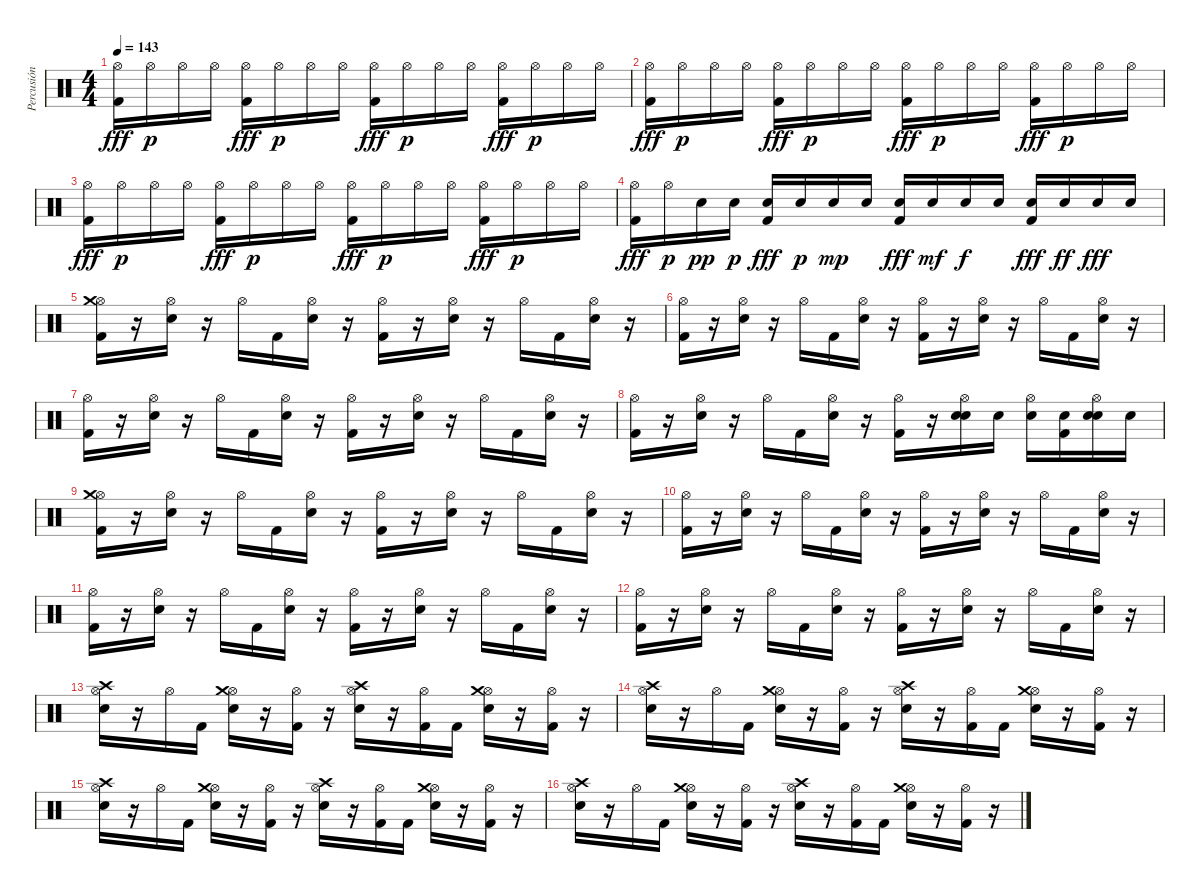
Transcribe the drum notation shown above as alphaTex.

\track ("Percusión" "Percusión") {instrument percussion}
\staff {score}
\articulation defaults
\ts (4 4)
\tempo 143
\clef neutral
\ks c
("Hi-Hat (open)" "Kick (hit) 2").16{dy fff} "Hi-Hat (open)".16{dy p} "Hi-Hat (open)".16 "Hi-Hat (open)".16 ("Hi-Hat (open)" "Kick (hit) 2").16{dy fff} "Hi-Hat (open)".16{dy p} "Hi-Hat (open)".16 "Hi-Hat (open)".16 ("Hi-Hat (open)" "Kick (hit) 2").16{dy fff} "Hi-Hat (open)".16{dy p} "Hi-Hat (open)".16 "Hi-Hat (open)".16 ("Hi-Hat (open)" "Kick (hit) 2").16{dy fff} "Hi-Hat (open)".16{dy p} "Hi-Hat (open)".16 "Hi-Hat (open)".16 |
("Hi-Hat (open)" "Kick (hit) 2").16{dy fff} "Hi-Hat (open)".16{dy p} "Hi-Hat (open)".16 "Hi-Hat (open)".16 ("Hi-Hat (open)" "Kick (hit) 2").16{dy fff} "Hi-Hat (open)".16{dy p} "Hi-Hat (open)".16 "Hi-Hat (open)".16 ("Hi-Hat (open)" "Kick (hit) 2").16{dy fff} "Hi-Hat (open)".16{dy p} "Hi-Hat (open)".16 "Hi-Hat (open)".16 ("Hi-Hat (open)" "Kick (hit) 2").16{dy fff} "Hi-Hat (open)".16{dy p} "Hi-Hat (open)".16 "Hi-Hat (open)".16 |
("Hi-Hat (open)" "Kick (hit) 2").16{dy fff} "Hi-Hat (open)".16{dy p} "Hi-Hat (open)".16 "Hi-Hat (open)".16 ("Hi-Hat (open)" "Kick (hit) 2").16{dy fff} "Hi-Hat (open)".16{dy p} "Hi-Hat (open)".16 "Hi-Hat (open)".16 ("Hi-Hat (open)" "Kick (hit) 2").16{dy fff} "Hi-Hat (open)".16{dy p} "Hi-Hat (open)".16 "Hi-Hat (open)".16 ("Hi-Hat (open)" "Kick (hit) 2").16{dy fff} "Hi-Hat (open)".16{dy p} "Hi-Hat (open)".16 "Hi-Hat (open)".16 |
("Hi-Hat (open)" "Kick (hit) 2").16{dy fff} "Hi-Hat (open)".16{dy p} "Snare (hit) 2".16{dy pp} "Snare (hit) 2".16{dy p} ("Snare (hit) 2" "Kick (hit) 2").16{dy fff} "Snare (hit) 2".16{dy p} "Snare (hit) 2".16{dy mp} "Snare (hit) 2".16 ("Snare (hit) 2" "Kick (hit) 2").16{dy fff} "Snare (hit) 2".16{dy mf} "Snare (hit) 2".16{dy f} "Snare (hit) 2".16 ("Snare (hit) 2" "Kick (hit) 2").16{dy fff} "Snare (hit) 2".16{dy ff} "Snare (hit) 2".16{dy fff} "Snare (hit) 2".16 |
("Kick (hit) 2" "Hi-Hat (open)" "Crash medium (hit)").16 r.16 ("Snare (hit) 2" "Hi-Hat (open)").16 r.16 "Hi-Hat (open)".16 "Kick (hit) 2".16 ("Snare (hit) 2" "Hi-Hat (open)").16 r.16 ("Kick (hit) 2" "Hi-Hat (open)").16 r.16 ("Snare (hit) 2" "Hi-Hat (open)").16 r.16 "Hi-Hat (open)".16 "Kick (hit) 2".16 ("Snare (hit) 2" "Hi-Hat (open)").16 r.16 |
("Kick (hit) 2" "Hi-Hat (open)").16 r.16 ("Snare (hit) 2" "Hi-Hat (open)").16 r.16 "Hi-Hat (open)".16 "Kick (hit) 2".16 ("Snare (hit) 2" "Hi-Hat (open)").16 r.16 ("Kick (hit) 2" "Hi-Hat (open)").16 r.16 ("Snare (hit) 2" "Hi-Hat (open)").16 r.16 "Hi-Hat (open)".16 "Kick (hit) 2".16 ("Snare (hit) 2" "Hi-Hat (open)").16 r.16 |
("Kick (hit) 2" "Hi-Hat (open)").16 r.16 ("Snare (hit) 2" "Hi-Hat (open)").16 r.16 "Hi-Hat (open)".16 "Kick (hit) 2".16 ("Snare (hit) 2" "Hi-Hat (open)").16 r.16 ("Kick (hit) 2" "Hi-Hat (open)").16 r.16 ("Snare (hit) 2" "Hi-Hat (open)").16 r.16 "Hi-Hat (open)".16 "Kick (hit) 2".16 ("Snare (hit) 2" "Hi-Hat (open)").16 r.16 |
("Kick (hit) 2" "Hi-Hat (open)").16 r.16 ("Snare (hit) 2" "Hi-Hat (open)").16 r.16 "Hi-Hat (open)".16 "Kick (hit) 2".16 ("Snare (hit) 2" "Hi-Hat (open)").16 r.16 ("Kick (hit) 2" "Hi-Hat (open)").16 r.16 ("Snare (hit) 2" "Hi-Hat (open)" "Snare (hit) 2").16 "Snare (hit) 2".16 ("Hi-Hat (open)" "Snare (hit) 2").16 ("Kick (hit) 2" "Snare (hit) 2").16 ("Snare (hit) 2" "Hi-Hat (open)" "Snare (hit) 2").16 "Snare (hit) 2".16 |
("Kick (hit) 2" "Hi-Hat (open)" "Crash medium (hit)").16 r.16 ("Snare (hit) 2" "Hi-Hat (open)").16 r.16 "Hi-Hat (open)".16 "Kick (hit) 2".16 ("Snare (hit) 2" "Hi-Hat (open)").16 r.16 ("Kick (hit) 2" "Hi-Hat (open)").16 r.16 ("Snare (hit) 2" "Hi-Hat (open)").16 r.16 "Hi-Hat (open)".16 "Kick (hit) 2".16 ("Snare (hit) 2" "Hi-Hat (open)").16 r.16 |
("Kick (hit) 2" "Hi-Hat (open)").16 r.16 ("Snare (hit) 2" "Hi-Hat (open)").16 r.16 "Hi-Hat (open)".16 "Kick (hit) 2".16 ("Snare (hit) 2" "Hi-Hat (open)").16 r.16 ("Kick (hit) 2" "Hi-Hat (open)").16 r.16 ("Snare (hit) 2" "Hi-Hat (open)").16 r.16 "Hi-Hat (open)".16 "Kick (hit) 2".16 ("Snare (hit) 2" "Hi-Hat (open)").16 r.16 |
("Kick (hit) 2" "Hi-Hat (open)").16 r.16 ("Snare (hit) 2" "Hi-Hat (open)").16 r.16 "Hi-Hat (open)".16 "Kick (hit) 2".16 ("Snare (hit) 2" "Hi-Hat (open)").16 r.16 ("Kick (hit) 2" "Hi-Hat (open)").16 r.16 ("Snare (hit) 2" "Hi-Hat (open)").16 r.16 "Hi-Hat (open)".16 "Kick (hit) 2".16 ("Snare (hit) 2" "Hi-Hat (open)").16 r.16 |
("Kick (hit) 2" "Hi-Hat (open)").16 r.16 ("Snare (hit) 2" "Hi-Hat (open)").16 r.16 "Hi-Hat (open)".16 "Kick (hit) 2".16 ("Snare (hit) 2" "Hi-Hat (open)").16 r.16 ("Kick (hit) 2" "Hi-Hat (open)").16 r.16 ("Snare (hit) 2" "Hi-Hat (open)").16 r.16 "Hi-Hat (open)".16 "Kick (hit) 2".16 ("Snare (hit) 2" "Hi-Hat (open)").16 r.16 |
("Hi-Hat (open)" "Snare (hit) 2" "Crash high (hit)").16 r.16 "Hi-Hat (open)".16 "Kick (hit) 2".16 ("Hi-Hat (open)" "Snare (hit) 2" "Crash medium (hit)").16 r.16 ("Hi-Hat (open)" "Kick (hit) 2").16 r.16 ("Hi-Hat (open)" "Snare (hit) 2" "Crash high (hit)").16 r.16 ("Hi-Hat (open)" "Kick (hit) 2").16 "Kick (hit) 2".16 ("Hi-Hat (open)" "Snare (hit) 2" "Crash medium (hit)").16 r.16 ("Hi-Hat (open)" "Kick (hit) 2").16 r.16 |
("Hi-Hat (open)" "Snare (hit) 2" "Crash high (hit)").16 r.16 "Hi-Hat (open)".16 "Kick (hit) 2".16 ("Hi-Hat (open)" "Snare (hit) 2" "Crash medium (hit)").16 r.16 ("Hi-Hat (open)" "Kick (hit) 2").16 r.16 ("Hi-Hat (open)" "Snare (hit) 2" "Crash high (hit)").16 r.16 ("Hi-Hat (open)" "Kick (hit) 2").16 "Kick (hit) 2".16 ("Hi-Hat (open)" "Snare (hit) 2" "Crash medium (hit)").16 r.16 ("Hi-Hat (open)" "Kick (hit) 2").16 r.16 |
("Hi-Hat (open)" "Snare (hit) 2" "Crash high (hit)").16 r.16 "Hi-Hat (open)".16 "Kick (hit) 2".16 ("Hi-Hat (open)" "Snare (hit) 2" "Crash medium (hit)").16 r.16 ("Hi-Hat (open)" "Kick (hit) 2").16 r.16 ("Hi-Hat (open)" "Snare (hit) 2" "Crash high (hit)").16 r.16 ("Hi-Hat (open)" "Kick (hit) 2").16 "Kick (hit) 2".16 ("Hi-Hat (open)" "Snare (hit) 2" "Crash medium (hit)").16 r.16 ("Hi-Hat (open)" "Kick (hit) 2").16 r.16 |
("Hi-Hat (open)" "Snare (hit) 2" "Crash high (hit)").16 r.16 "Hi-Hat (open)".16 "Kick (hit) 2".16 ("Hi-Hat (open)" "Snare (hit) 2" "Crash medium (hit)").16 r.16 ("Hi-Hat (open)" "Kick (hit) 2").16 r.16 ("Hi-Hat (open)" "Snare (hit) 2" "Crash high (hit)").16 r.16 ("Hi-Hat (open)" "Kick (hit) 2").16 "Kick (hit) 2".16 ("Hi-Hat (open)" "Snare (hit) 2" "Crash medium (hit)").16 r.16 ("Hi-Hat (open)" "Kick (hit) 2").16 r.16
